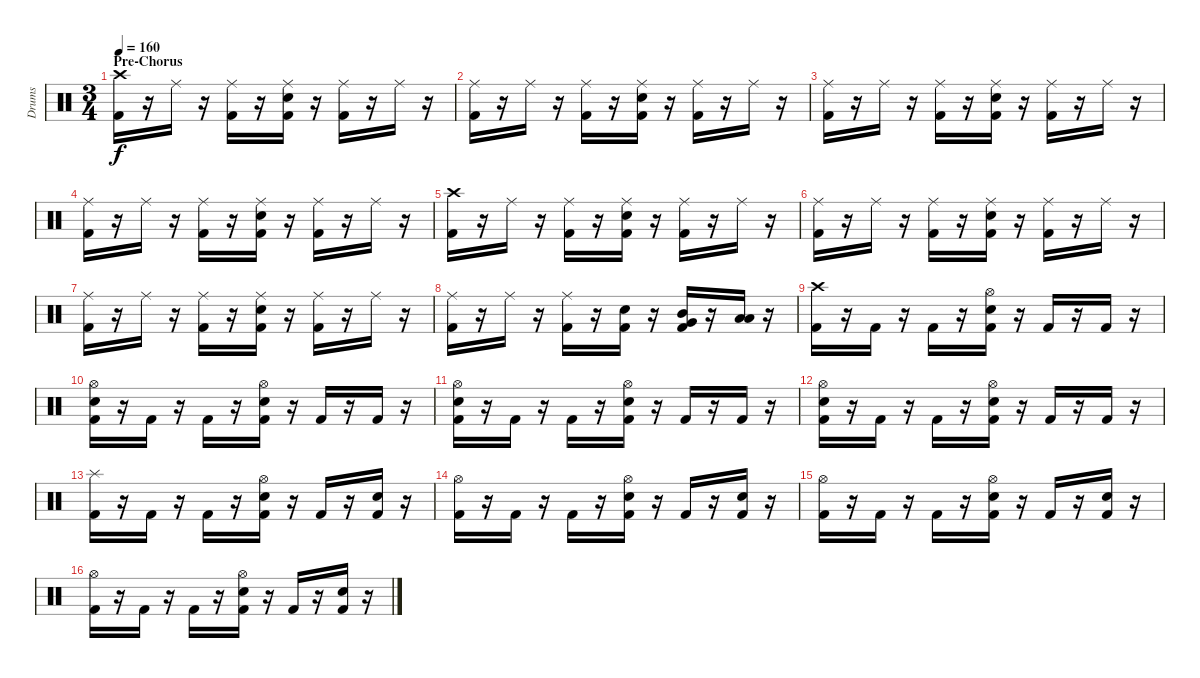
\track ("Drums" "Drums") {instrument percussion}
\staff {score}
\articulation defaults
\ts (3 4)
\section ("" "Pre-Chorus")
\tempo 160
\clef neutral
\ks c
("Crash high (hit)" "Kick (hit) 2").16{dy f} r.16 "Ride (middle)".16 r.16 ("Ride (middle)" "Kick (hit) 2").16 r.16 ("Ride (middle)" "Snare (hit) 2" "Kick (hit) 2").16 r.16 ("Ride (middle)" "Kick (hit) 2").16 r.16 "Ride (middle)".16 r.16 |
("Ride (middle)" "Kick (hit) 2").16 r.16 "Ride (middle)".16 r.16 ("Ride (middle)" "Kick (hit) 2").16 r.16 ("Ride (middle)" "Snare (hit) 2" "Kick (hit) 2").16 r.16 ("Ride (middle)" "Kick (hit) 2").16 r.16 "Ride (middle)".16 r.16 |
("Ride (middle)" "Kick (hit) 2").16 r.16 "Ride (middle)".16 r.16 ("Ride (middle)" "Kick (hit) 2").16 r.16 ("Ride (middle)" "Snare (hit) 2" "Kick (hit) 2").16 r.16 ("Ride (middle)" "Kick (hit) 2").16 r.16 "Ride (middle)".16 r.16 |
("Ride (middle)" "Kick (hit) 2").16 r.16 "Ride (middle)".16 r.16 ("Ride (middle)" "Kick (hit) 2").16 r.16 ("Ride (middle)" "Snare (hit) 2" "Kick (hit) 2").16 r.16 ("Ride (middle)" "Kick (hit) 2").16 r.16 "Ride (middle)".16 r.16 |
("Crash high (hit)" "Kick (hit) 2").16 r.16 "Ride (middle)".16 r.16 ("Ride (middle)" "Kick (hit) 2").16 r.16 ("Ride (middle)" "Snare (hit) 2" "Kick (hit) 2").16 r.16 ("Ride (middle)" "Kick (hit) 2").16 r.16 "Ride (middle)".16 r.16 |
("Ride (middle)" "Kick (hit) 2").16 r.16 "Ride (middle)".16 r.16 ("Ride (middle)" "Kick (hit) 2").16 r.16 ("Ride (middle)" "Snare (hit) 2" "Kick (hit) 2").16 r.16 ("Ride (middle)" "Kick (hit) 2").16 r.16 "Ride (middle)".16 r.16 |
("Ride (middle)" "Kick (hit) 2").16 r.16 "Ride (middle)".16 r.16 ("Ride (middle)" "Kick (hit) 2").16 r.16 ("Ride (middle)" "Snare (hit) 2" "Kick (hit) 2").16 r.16 ("Ride (middle)" "Kick (hit) 2").16 r.16 "Ride (middle)".16 r.16 |
("Ride (middle)" "Kick (hit) 2").16 r.16 "Ride (middle)".16 r.16 ("Ride (middle)" "Kick (hit) 2").16 r.16 ("Snare (hit) 2" "Kick (hit) 2").16 r.16 ("Very Low Tom (hit)" "Mid Tom (hit)" "Kick (hit) 2").16 r.16 ("Low Floor Tom (hit)" "Low Tom (hit)").16 r.16 |
("Crash high (hit)" "Kick (hit) 2").16 r.16 "Kick (hit) 2".16 r.16 "Kick (hit) 2".16 r.16 ("Hi-Hat (open)" "Snare (hit) 2" "Kick (hit) 2").16 r.16 "Kick (hit) 2".16 r.16 "Kick (hit) 2".16 r.16 |
("Hi-Hat (open)" "Snare (hit) 2" "Kick (hit) 2").16 r.16 "Kick (hit) 2".16 r.16 "Kick (hit) 2".16 r.16 ("Hi-Hat (open)" "Snare (hit) 2" "Kick (hit) 2").16 r.16 "Kick (hit) 2".16 r.16 "Kick (hit) 2".16 r.16 |
("Hi-Hat (open)" "Snare (hit) 2" "Kick (hit) 2").16 r.16 "Kick (hit) 2".16 r.16 "Kick (hit) 2".16 r.16 ("Hi-Hat (open)" "Snare (hit) 2" "Kick (hit) 2").16 r.16 "Kick (hit) 2".16 r.16 "Kick (hit) 2".16 r.16 |
("Hi-Hat (open)" "Snare (hit) 2" "Kick (hit) 2").16 r.16 "Kick (hit) 2".16 r.16 "Kick (hit) 2".16 r.16 ("Hi-Hat (open)" "Snare (hit) 2" "Kick (hit) 2").16 r.16 "Kick (hit) 2".16 r.16 "Kick (hit) 2".16 r.16 |
("Splash (hit)" "Kick (hit) 2").16 r.16 "Kick (hit) 2".16 r.16 "Kick (hit) 2".16 r.16 ("Hi-Hat (open)" "Snare (hit) 2" "Kick (hit) 2").16 r.16 "Kick (hit) 2".16 r.16 ("Snare (hit) 2" "Kick (hit) 2").16 r.16 |
("Hi-Hat (open)" "Kick (hit) 2").16 r.16 "Kick (hit) 2".16 r.16 "Kick (hit) 2".16 r.16 ("Hi-Hat (open)" "Snare (hit) 2" "Kick (hit) 2").16 r.16 "Kick (hit) 2".16 r.16 ("Snare (hit) 2" "Kick (hit) 2").16 r.16 |
("Hi-Hat (open)" "Kick (hit) 2").16 r.16 "Kick (hit) 2".16 r.16 "Kick (hit) 2".16 r.16 ("Hi-Hat (open)" "Snare (hit) 2" "Kick (hit) 2").16 r.16 "Kick (hit) 2".16 r.16 ("Snare (hit) 2" "Kick (hit) 2").16 r.16 |
("Hi-Hat (open)" "Kick (hit) 2").16 r.16 "Kick (hit) 2".16 r.16 "Kick (hit) 2".16 r.16 ("Hi-Hat (open)" "Snare (hit) 2" "Kick (hit) 2").16 r.16 "Kick (hit) 2".16 r.16 ("Snare (hit) 2" "Kick (hit) 2").16 r.16
